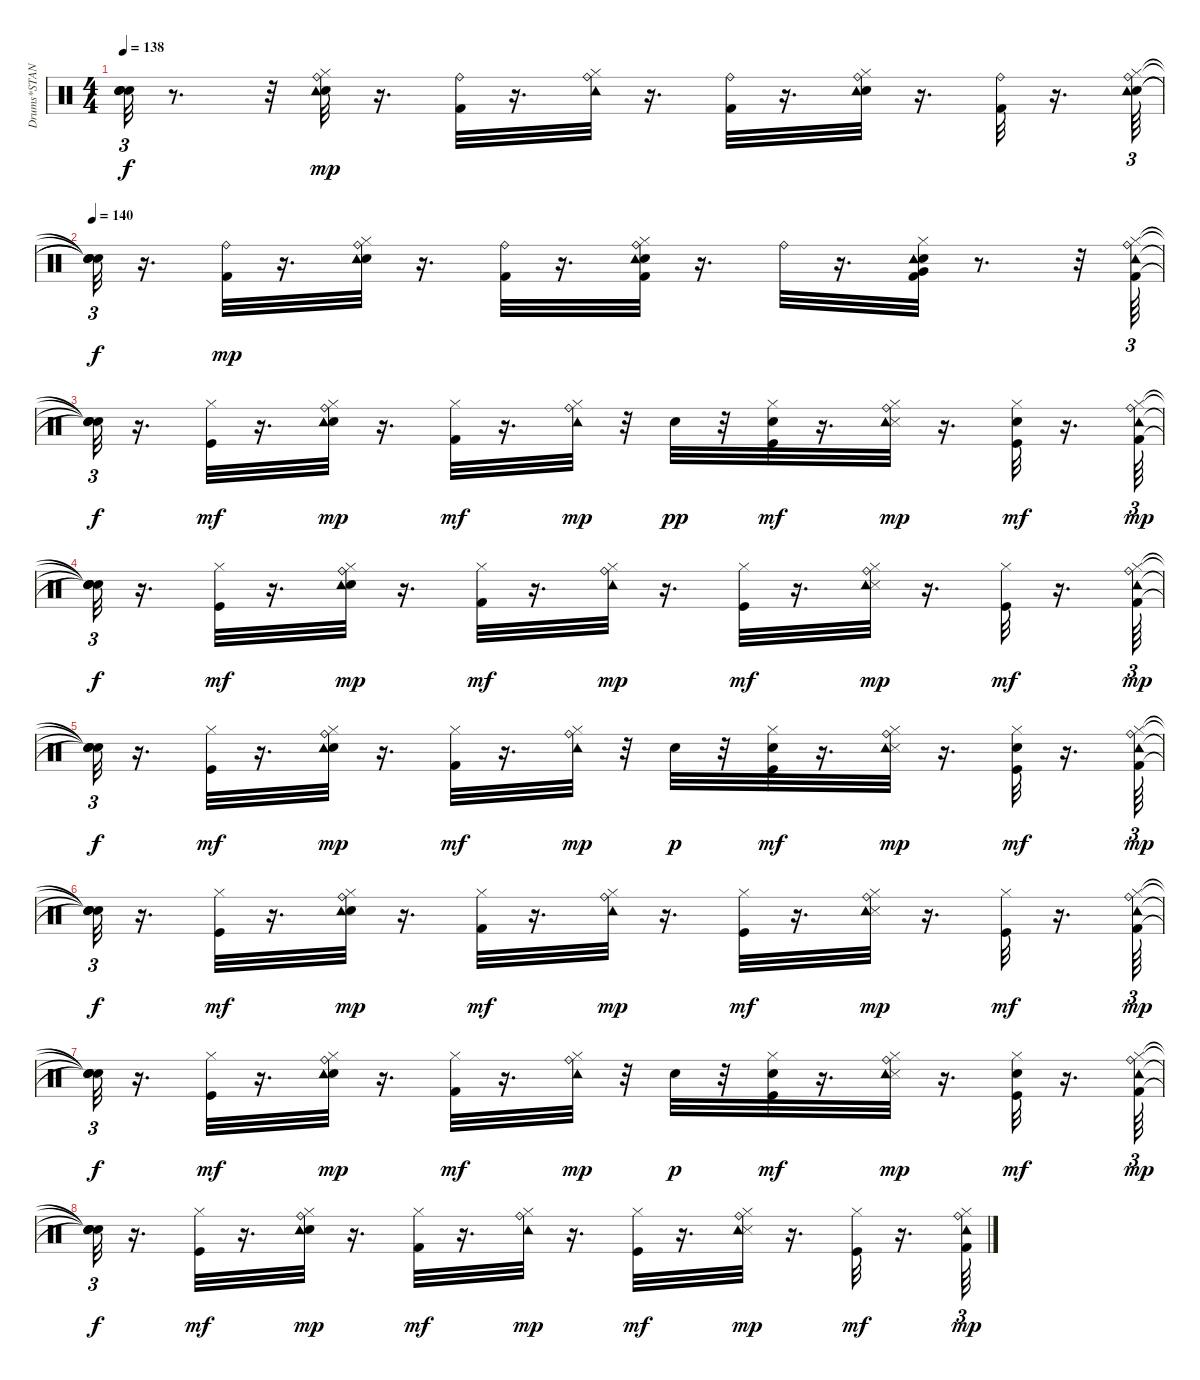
\track ("Drums*STANDARD      " "Drums*STAN") {instrument percussion}
\staff {score}
\articulation defaults
\ts (4 4)
\tempo 138
\clef neutral
\ks c
("Snare (hit)"{t} "Snare (hit)"{t} "Snare (hit)"{t} "Snare (hit)"{t}).32{tu (3 2) dy f} r.8{d} r.32 ("Snare (hit) 2" "Hi-Hat (closed)" "Ride (bell)" "Tambourine (hit)").32{dy mp} r.16{d} ("Kick (hit) 2" "Ride (bell)").32 r.16{d} ("Hi-Hat (closed)" "Ride (bell)" "Tambourine (hit)").32 r.16{d} ("Kick (hit) 2" "Ride (bell)").32 r.16{d} ("Snare (hit) 2" "Hi-Hat (closed)" "Ride (bell)" "Tambourine (hit)").32 r.16{d} ("Kick (hit) 2" "Ride (bell)").32 r.16{d} ("Snare (hit) 2" "Hi-Hat (closed)" "Ride (bell)" "Tambourine (hit)").64{tu (3 2)} |
\tempo 140
("Snare (hit)"{t} "Snare (hit)"{t} "Snare (hit)"{t} "Snare (hit)"{t}).32{tu (3 2) dy f} r.16{d} ("Kick (hit) 2" "Ride (bell)").32{dy mp} r.16{d} ("Snare (hit) 2" "Hi-Hat (closed)" "Ride (bell)" "Tambourine (hit)").32 r.16{d} ("Kick (hit) 2" "Ride (bell)").32 r.16{d} ("Kick (hit) 2" "Snare (hit) 2" "Hi-Hat (closed)" "Ride (bell)" "Tambourine (hit)").32 r.16{d} "Ride (bell)".32 r.16{d} ("Kick (hit) 2" "Snare (hit) 2" "Hi-Hat (closed)" "Very Low Tom (hit)" "Tambourine (hit)").32 r.8{d} r.32 ("Kick (hit) 2" "Hi-Hat (closed)" "Ride (bell)" "Tambourine (hit)").64{tu (3 2)} |
("Snare (hit)"{t} "Snare (hit)"{t} "Snare (hit)"{t} "Snare (hit)"{t}).32{tu (3 2) dy f} r.16{d} ("Hi-Hat (closed)" "Kick (hit)").32{dy mf} r.16{d} ("Snare (hit) 2" "Hi-Hat (closed)" "Ride (bell)" "Tambourine (hit)").32{dy mp} r.16{d} ("Kick (hit) 2" "Hi-Hat (closed)").32{dy mf} r.16{d} ("Hi-Hat (closed)" "Ride (bell)" "Tambourine (hit)").32{dy mp} r.32 "Electric Snare (hit)".32{dy pp} r.32 ("Electric Snare (hit)" "Hi-Hat (closed)" "Kick (hit)").32{dy mf} r.16{d} ("Hi-Hat (closed)" "Snare (side stick) 3" "Ride (bell)" "Tambourine (hit)").32{dy mp} r.16{d} ("Hi-Hat (closed)" "Electric Snare (hit)" "Kick (hit)").32{dy mf} r.16{d} ("Kick (hit) 2" "Hi-Hat (closed)" "Ride (bell)" "Tambourine (hit)").64{tu (3 2) dy mp} |
("Snare (hit)"{t} "Snare (hit)"{t} "Snare (hit)"{t} "Snare (hit)"{t}).32{tu (3 2) dy f} r.16{d} ("Hi-Hat (closed)" "Kick (hit)").32{dy mf} r.16{d} ("Snare (hit) 2" "Hi-Hat (closed)" "Ride (bell)" "Tambourine (hit)").32{dy mp} r.16{d} ("Kick (hit) 2" "Hi-Hat (closed)").32{dy mf} r.16{d} ("Hi-Hat (closed)" "Ride (bell)" "Tambourine (hit)").32{dy mp} r.16{d} ("Hi-Hat (closed)" "Kick (hit)").32{dy mf} r.16{d} ("Hi-Hat (closed)" "Snare (side stick) 3" "Ride (bell)" "Tambourine (hit)").32{dy mp} r.16{d} ("Hi-Hat (closed)" "Kick (hit)").32{dy mf} r.16{d} ("Kick (hit) 2" "Hi-Hat (closed)" "Ride (bell)" "Tambourine (hit)").64{tu (3 2) dy mp} |
("Snare (hit)"{t} "Snare (hit)"{t} "Snare (hit)"{t} "Snare (hit)"{t}).32{tu (3 2) dy f} r.16{d} ("Hi-Hat (closed)" "Kick (hit)").32{dy mf} r.16{d} ("Snare (hit) 2" "Hi-Hat (closed)" "Ride (bell)" "Tambourine (hit)").32{dy mp} r.16{d} ("Kick (hit) 2" "Hi-Hat (closed)").32{dy mf} r.16{d} ("Hi-Hat (closed)" "Ride (bell)" "Tambourine (hit)").32{dy mp} r.32 "Electric Snare (hit)".32{dy p} r.32 ("Hi-Hat (closed)" "Electric Snare (hit)" "Kick (hit)").32{dy mf} r.16{d} ("Hi-Hat (closed)" "Snare (side stick) 3" "Ride (bell)" "Tambourine (hit)").32{dy mp} r.16{d} ("Hi-Hat (closed)" "Electric Snare (hit)" "Kick (hit)").32{dy mf} r.16{d} ("Kick (hit) 2" "Hi-Hat (closed)" "Ride (bell)" "Tambourine (hit)").64{tu (3 2) dy mp} |
("Snare (hit)"{t} "Snare (hit)"{t} "Snare (hit)"{t} "Snare (hit)"{t}).32{tu (3 2) dy f} r.16{d} ("Hi-Hat (closed)" "Kick (hit)").32{dy mf} r.16{d} ("Snare (hit) 2" "Hi-Hat (closed)" "Ride (bell)" "Tambourine (hit)").32{dy mp} r.16{d} ("Kick (hit) 2" "Hi-Hat (closed)").32{dy mf} r.16{d} ("Hi-Hat (closed)" "Ride (bell)" "Tambourine (hit)").32{dy mp} r.16{d} ("Hi-Hat (closed)" "Kick (hit)").32{dy mf} r.16{d} ("Hi-Hat (closed)" "Snare (side stick) 3" "Ride (bell)" "Tambourine (hit)").32{dy mp} r.16{d} ("Hi-Hat (closed)" "Kick (hit)").32{dy mf} r.16{d} ("Kick (hit) 2" "Hi-Hat (closed)" "Ride (bell)" "Tambourine (hit)").64{tu (3 2) dy mp} |
("Snare (hit)"{t} "Snare (hit)"{t} "Snare (hit)"{t} "Snare (hit)"{t}).32{tu (3 2) dy f} r.16{d} ("Hi-Hat (closed)" "Kick (hit)").32{dy mf} r.16{d} ("Snare (hit) 2" "Hi-Hat (closed)" "Ride (bell)" "Tambourine (hit)").32{dy mp} r.16{d} ("Kick (hit) 2" "Hi-Hat (closed)").32{dy mf} r.16{d} ("Hi-Hat (closed)" "Ride (bell)" "Tambourine (hit)").32{dy mp} r.32 "Electric Snare (hit)".32{dy p} r.32 ("Electric Snare (hit)" "Hi-Hat (closed)" "Kick (hit)").32{dy mf} r.16{d} ("Hi-Hat (closed)" "Snare (side stick) 3" "Ride (bell)" "Tambourine (hit)").32{dy mp} r.16{d} ("Electric Snare (hit)" "Hi-Hat (closed)" "Kick (hit)").32{dy mf} r.16{d} ("Kick (hit) 2" "Hi-Hat (closed)" "Ride (bell)" "Tambourine (hit)").64{tu (3 2) dy mp} |
("Snare (hit)"{t} "Snare (hit)"{t} "Snare (hit)"{t} "Snare (hit)"{t}).32{tu (3 2) dy f} r.16{d} ("Hi-Hat (closed)" "Kick (hit)").32{dy mf} r.16{d} ("Snare (hit) 2" "Hi-Hat (closed)" "Ride (bell)" "Tambourine (hit)").32{dy mp} r.16{d} ("Kick (hit) 2" "Hi-Hat (closed)").32{dy mf} r.16{d} ("Hi-Hat (closed)" "Ride (bell)" "Tambourine (hit)").32{dy mp} r.16{d} ("Hi-Hat (closed)" "Kick (hit)").32{dy mf} r.16{d} ("Hi-Hat (closed)" "Snare (side stick) 3" "Ride (bell)" "Tambourine (hit)").32{dy mp} r.16{d} ("Hi-Hat (closed)" "Kick (hit)").32{dy mf} r.16{d} ("Kick (hit) 2" "Hi-Hat (closed)" "Ride (bell)" "Tambourine (hit)").64{tu (3 2) dy mp}
